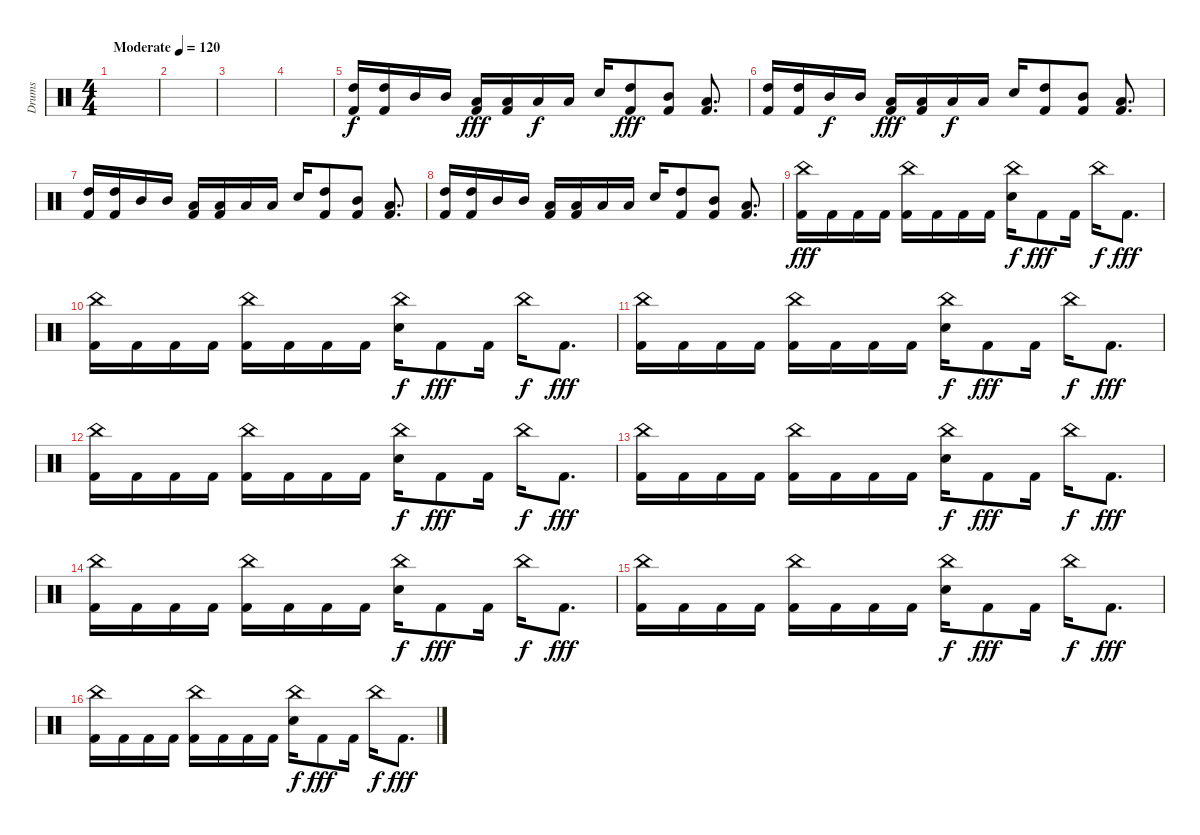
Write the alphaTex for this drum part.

\track ("Drums" "Drums") {instrument percussion}
\staff {score}
\articulation defaults
\ts (4 4)
\tempo (120 "Moderate")
\clef neutral
\ks c
|
|
|
|
("High Tom (hit)" "Kick (hit) 2").16 ("High Tom (hit)" "Kick (hit) 2").16 "Mid Tom (hit)".16{dy f} "Mid Tom (hit)".16 ("Low Tom (hit)" "Kick (hit) 2").16{dy fff} ("Low Tom (hit)" "Kick (hit) 2").16 "Low Floor Tom (hit)".16{dy f} "Low Floor Tom (hit)".16 "Electric Snare (hit)".16 ("High Tom (hit)" "Kick (hit) 2").8{dy fff} ("Mid Tom (hit)" "Kick (hit) 2").8 ("Low Tom (hit)" "Kick (hit) 2").8{d} |
("High Tom (hit)" "Kick (hit) 2").16 ("High Tom (hit)" "Kick (hit) 2").16 "Mid Tom (hit)".16{dy f} "Mid Tom (hit)".16 ("Low Tom (hit)" "Kick (hit) 2").16{dy fff} ("Low Tom (hit)" "Kick (hit) 2").16 "Low Floor Tom (hit)".16{dy f} "Low Floor Tom (hit)".16 "Electric Snare (hit)".16 ("High Tom (hit)" "Kick (hit) 2").8 ("Mid Tom (hit)" "Kick (hit) 2").8 ("Low Tom (hit)" "Kick (hit) 2").8{d} |
("High Tom (hit)" "Kick (hit) 2").16 ("High Tom (hit)" "Kick (hit) 2").16 "Mid Tom (hit)".16 "Mid Tom (hit)".16 ("Low Tom (hit)" "Kick (hit) 2").16 ("Low Tom (hit)" "Kick (hit) 2").16 "Low Floor Tom (hit)".16 "Low Floor Tom (hit)".16 "Electric Snare (hit)".16 ("High Tom (hit)" "Kick (hit) 2").8 ("Mid Tom (hit)" "Kick (hit) 2").8 ("Low Tom (hit)" "Kick (hit) 2").8{d} |
("High Tom (hit)" "Kick (hit) 2").16 ("High Tom (hit)" "Kick (hit) 2").16 "Mid Tom (hit)".16 "Mid Tom (hit)".16 ("Low Tom (hit)" "Kick (hit) 2").16 ("Low Tom (hit)" "Kick (hit) 2").16 "Low Floor Tom (hit)".16 "Low Floor Tom (hit)".16 "Electric Snare (hit)".16 ("High Tom (hit)" "Kick (hit) 2").8 ("Mid Tom (hit)" "Kick (hit) 2").8 ("Low Tom (hit)" "Kick (hit) 2").8{d} |
("China (hit)" "Kick (hit) 2").16{dy fff} "Kick (hit) 2".16 "Kick (hit) 2".16 "Kick (hit) 2".16 ("China (hit)" "Kick (hit) 2").16 "Kick (hit) 2".16 "Kick (hit) 2".16 "Kick (hit) 2".16 ("China (hit)" "Electric Snare (hit)").16{dy f} "Kick (hit) 2".8{dy fff} "Kick (hit) 2".16 "China (hit)".16{dy f} "Kick (hit) 2".8{d dy fff} |
("China (hit)" "Kick (hit) 2").16 "Kick (hit) 2".16 "Kick (hit) 2".16 "Kick (hit) 2".16 ("China (hit)" "Kick (hit) 2").16 "Kick (hit) 2".16 "Kick (hit) 2".16 "Kick (hit) 2".16 ("China (hit)" "Electric Snare (hit)").16{dy f} "Kick (hit) 2".8{dy fff} "Kick (hit) 2".16 "China (hit)".16{dy f} "Kick (hit) 2".8{d dy fff} |
("China (hit)" "Kick (hit) 2").16 "Kick (hit) 2".16 "Kick (hit) 2".16 "Kick (hit) 2".16 ("China (hit)" "Kick (hit) 2").16 "Kick (hit) 2".16 "Kick (hit) 2".16 "Kick (hit) 2".16 ("China (hit)" "Electric Snare (hit)").16{dy f} "Kick (hit) 2".8{dy fff} "Kick (hit) 2".16 "China (hit)".16{dy f} "Kick (hit) 2".8{d dy fff} |
("China (hit)" "Kick (hit) 2").16 "Kick (hit) 2".16 "Kick (hit) 2".16 "Kick (hit) 2".16 ("China (hit)" "Kick (hit) 2").16 "Kick (hit) 2".16 "Kick (hit) 2".16 "Kick (hit) 2".16 ("China (hit)" "Electric Snare (hit)").16{dy f} "Kick (hit) 2".8{dy fff} "Kick (hit) 2".16 "China (hit)".16{dy f} "Kick (hit) 2".8{d dy fff} |
("China (hit)" "Kick (hit) 2").16 "Kick (hit) 2".16 "Kick (hit) 2".16 "Kick (hit) 2".16 ("China (hit)" "Kick (hit) 2").16 "Kick (hit) 2".16 "Kick (hit) 2".16 "Kick (hit) 2".16 ("China (hit)" "Electric Snare (hit)").16{dy f} "Kick (hit) 2".8{dy fff} "Kick (hit) 2".16 "China (hit)".16{dy f} "Kick (hit) 2".8{d dy fff} |
("China (hit)" "Kick (hit) 2").16 "Kick (hit) 2".16 "Kick (hit) 2".16 "Kick (hit) 2".16 ("China (hit)" "Kick (hit) 2").16 "Kick (hit) 2".16 "Kick (hit) 2".16 "Kick (hit) 2".16 ("China (hit)" "Electric Snare (hit)").16{dy f} "Kick (hit) 2".8{dy fff} "Kick (hit) 2".16 "China (hit)".16{dy f} "Kick (hit) 2".8{d dy fff} |
("China (hit)" "Kick (hit) 2").16 "Kick (hit) 2".16 "Kick (hit) 2".16 "Kick (hit) 2".16 ("China (hit)" "Kick (hit) 2").16 "Kick (hit) 2".16 "Kick (hit) 2".16 "Kick (hit) 2".16 ("China (hit)" "Electric Snare (hit)").16{dy f} "Kick (hit) 2".8{dy fff} "Kick (hit) 2".16 "China (hit)".16{dy f} "Kick (hit) 2".8{d dy fff} |
("China (hit)" "Kick (hit) 2").16 "Kick (hit) 2".16 "Kick (hit) 2".16 "Kick (hit) 2".16 ("China (hit)" "Kick (hit) 2").16 "Kick (hit) 2".16 "Kick (hit) 2".16 "Kick (hit) 2".16 ("China (hit)" "Electric Snare (hit)").16{dy f} "Kick (hit) 2".8{dy fff} "Kick (hit) 2".16 "China (hit)".16{dy f} "Kick (hit) 2".8{d dy fff}
